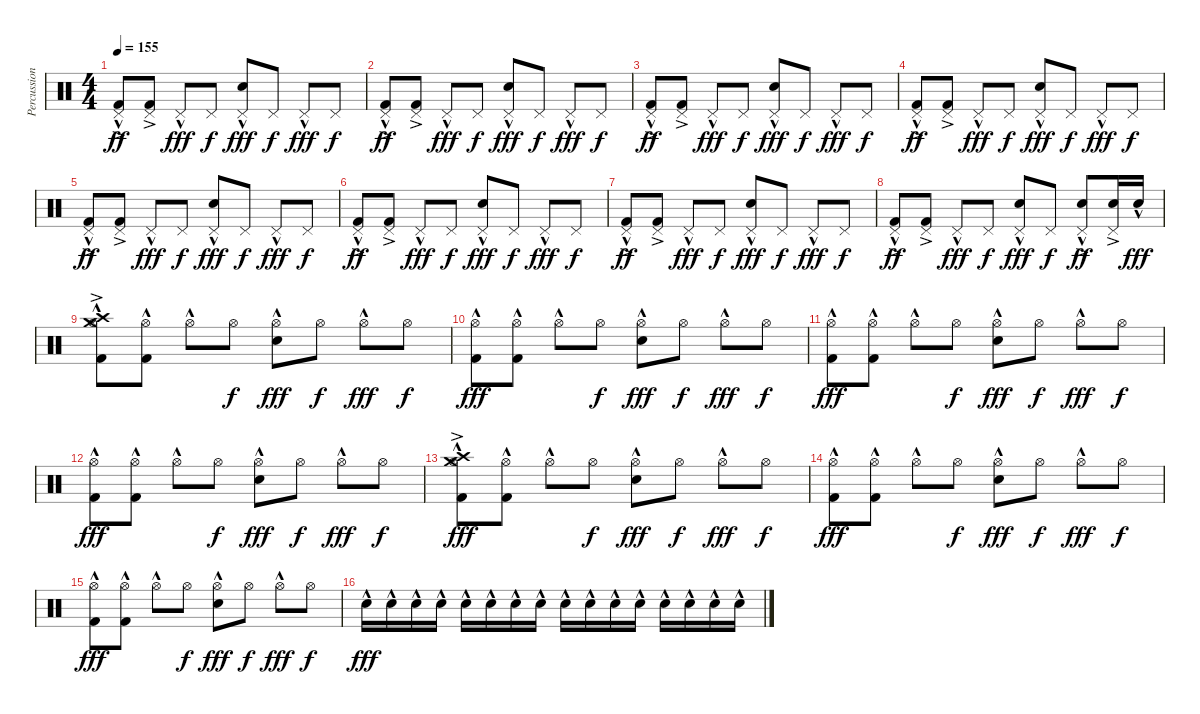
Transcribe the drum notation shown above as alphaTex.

\track ("Percussion" "Percussion") {instrument percussion}
\staff {score}
\articulation defaults
\ts (4 4)
\tempo 155
\clef neutral
\ks c
("Pedal Hi-Hat (hit)"{hac} "Kick (hit) 2"{ac}).8{dy ff} ("Pedal Hi-Hat (hit)" "Kick (hit) 2"{ac}).8 "Pedal Hi-Hat (hit)"{hac}.8{dy fff} "Pedal Hi-Hat (hit)".8{dy f} ("Pedal Hi-Hat (hit)"{hac} "Electric Snare (hit)"{hac}).8{dy fff} "Pedal Hi-Hat (hit)".8{dy f} "Pedal Hi-Hat (hit)"{hac}.8{dy fff} "Pedal Hi-Hat (hit)".8{dy f} |
("Pedal Hi-Hat (hit)"{hac} "Kick (hit) 2"{ac}).8{dy ff} ("Pedal Hi-Hat (hit)" "Kick (hit) 2"{ac}).8 "Pedal Hi-Hat (hit)"{hac}.8{dy fff} "Pedal Hi-Hat (hit)".8{dy f} ("Pedal Hi-Hat (hit)"{hac} "Electric Snare (hit)"{hac}).8{dy fff} "Pedal Hi-Hat (hit)".8{dy f} "Pedal Hi-Hat (hit)"{hac}.8{dy fff} "Pedal Hi-Hat (hit)".8{dy f} |
("Pedal Hi-Hat (hit)"{hac} "Kick (hit) 2"{ac}).8{dy ff} ("Pedal Hi-Hat (hit)" "Kick (hit) 2"{ac}).8 "Pedal Hi-Hat (hit)"{hac}.8{dy fff} "Pedal Hi-Hat (hit)".8{dy f} ("Pedal Hi-Hat (hit)"{hac} "Electric Snare (hit)"{hac}).8{dy fff} "Pedal Hi-Hat (hit)".8{dy f} "Pedal Hi-Hat (hit)"{hac}.8{dy fff} "Pedal Hi-Hat (hit)".8{dy f} |
("Pedal Hi-Hat (hit)"{hac} "Kick (hit) 2"{ac}).8{dy ff} ("Pedal Hi-Hat (hit)" "Kick (hit) 2"{ac}).8 "Pedal Hi-Hat (hit)"{hac}.8{dy fff} "Pedal Hi-Hat (hit)".8{dy f} ("Pedal Hi-Hat (hit)"{hac} "Electric Snare (hit)"{hac}).8{dy fff} "Pedal Hi-Hat (hit)".8{dy f} "Pedal Hi-Hat (hit)"{hac}.8{dy fff} "Pedal Hi-Hat (hit)".8{dy f} |
("Pedal Hi-Hat (hit)"{hac} "Kick (hit) 2"{ac}).8{dy ff} ("Pedal Hi-Hat (hit)" "Kick (hit) 2"{ac}).8 "Pedal Hi-Hat (hit)"{hac}.8{dy fff} "Pedal Hi-Hat (hit)".8{dy f} ("Pedal Hi-Hat (hit)"{hac} "Electric Snare (hit)"{hac}).8{dy fff} "Pedal Hi-Hat (hit)".8{dy f} "Pedal Hi-Hat (hit)"{hac}.8{dy fff} "Pedal Hi-Hat (hit)".8{dy f} |
("Pedal Hi-Hat (hit)"{hac} "Kick (hit) 2"{ac}).8{dy ff} ("Pedal Hi-Hat (hit)" "Kick (hit) 2"{ac}).8 "Pedal Hi-Hat (hit)"{hac}.8{dy fff} "Pedal Hi-Hat (hit)".8{dy f} ("Pedal Hi-Hat (hit)"{hac} "Electric Snare (hit)"{hac}).8{dy fff} "Pedal Hi-Hat (hit)".8{dy f} "Pedal Hi-Hat (hit)"{hac}.8{dy fff} "Pedal Hi-Hat (hit)".8{dy f} |
("Pedal Hi-Hat (hit)"{hac} "Kick (hit) 2"{ac}).8{dy ff} ("Pedal Hi-Hat (hit)" "Kick (hit) 2"{ac}).8 "Pedal Hi-Hat (hit)"{hac}.8{dy fff} "Pedal Hi-Hat (hit)".8{dy f} ("Pedal Hi-Hat (hit)"{hac} "Electric Snare (hit)"{hac}).8{dy fff} "Pedal Hi-Hat (hit)".8{dy f} "Pedal Hi-Hat (hit)"{hac}.8{dy fff} "Pedal Hi-Hat (hit)".8{dy f} |
("Pedal Hi-Hat (hit)"{hac} "Kick (hit) 2"{ac}).8{dy ff} ("Pedal Hi-Hat (hit)" "Kick (hit) 2"{ac}).8 "Pedal Hi-Hat (hit)"{hac}.8{dy fff} "Pedal Hi-Hat (hit)".8{dy f} ("Pedal Hi-Hat (hit)"{hac} "Electric Snare (hit)"{hac}).8{dy fff} "Pedal Hi-Hat (hit)".8{dy f} ("Pedal Hi-Hat (hit)"{hac} "Electric Snare (hit)"{ac}).8{dy ff} ("Pedal Hi-Hat (hit)" "Electric Snare (hit)"{ac}).16 "Electric Snare (hit)"{hac}.16{dy fff} |
("Hi-Hat (open)"{hac} "Crash medium (hit)"{hac} "Crash high (hit)"{ac} "Kick (hit) 2"{hac}).8 ("Hi-Hat (open)" "Kick (hit) 2"{hac}).8 "Hi-Hat (open)"{hac}.8 "Hi-Hat (open)".8{dy f} ("Hi-Hat (open)"{hac} "Electric Snare (hit)"{hac}).8{dy fff} "Hi-Hat (open)".8{dy f} "Hi-Hat (open)"{hac}.8{dy fff} "Hi-Hat (open)".8{dy f} |
("Hi-Hat (open)"{hac} "Kick (hit) 2"{hac}).8{dy fff} ("Hi-Hat (open)" "Kick (hit) 2"{hac}).8 "Hi-Hat (open)"{hac}.8 "Hi-Hat (open)".8{dy f} ("Hi-Hat (open)"{hac} "Electric Snare (hit)"{hac}).8{dy fff} "Hi-Hat (open)".8{dy f} "Hi-Hat (open)"{hac}.8{dy fff} "Hi-Hat (open)".8{dy f} |
("Hi-Hat (open)"{hac} "Kick (hit) 2"{hac}).8{dy fff} ("Hi-Hat (open)" "Kick (hit) 2"{hac}).8 "Hi-Hat (open)"{hac}.8 "Hi-Hat (open)".8{dy f} ("Hi-Hat (open)"{hac} "Electric Snare (hit)"{hac}).8{dy fff} "Hi-Hat (open)".8{dy f} "Hi-Hat (open)"{hac}.8{dy fff} "Hi-Hat (open)".8{dy f} |
("Hi-Hat (open)"{hac} "Kick (hit) 2"{hac}).8{dy fff} ("Hi-Hat (open)" "Kick (hit) 2"{hac}).8 "Hi-Hat (open)"{hac}.8 "Hi-Hat (open)".8{dy f} ("Hi-Hat (open)"{hac} "Electric Snare (hit)"{hac}).8{dy fff} "Hi-Hat (open)".8{dy f} "Hi-Hat (open)"{hac}.8{dy fff} "Hi-Hat (open)".8{dy f} |
("Hi-Hat (open)"{hac} "Crash medium (hit)"{hac} "Crash high (hit)"{ac} "Kick (hit) 2"{hac}).8{dy fff} ("Hi-Hat (open)" "Kick (hit) 2"{hac}).8 "Hi-Hat (open)"{hac}.8 "Hi-Hat (open)".8{dy f} ("Hi-Hat (open)"{hac} "Electric Snare (hit)"{hac}).8{dy fff} "Hi-Hat (open)".8{dy f} "Hi-Hat (open)"{hac}.8{dy fff} "Hi-Hat (open)".8{dy f} |
("Hi-Hat (open)"{hac} "Kick (hit) 2"{hac}).8{dy fff} ("Hi-Hat (open)" "Kick (hit) 2"{hac}).8 "Hi-Hat (open)"{hac}.8 "Hi-Hat (open)".8{dy f} ("Hi-Hat (open)"{hac} "Electric Snare (hit)"{hac}).8{dy fff} "Hi-Hat (open)".8{dy f} "Hi-Hat (open)"{hac}.8{dy fff} "Hi-Hat (open)".8{dy f} |
("Hi-Hat (open)"{hac} "Kick (hit) 2"{hac}).8{dy fff} ("Hi-Hat (open)" "Kick (hit) 2"{hac}).8 "Hi-Hat (open)"{hac}.8 "Hi-Hat (open)".8{dy f} ("Hi-Hat (open)"{hac} "Electric Snare (hit)"{hac}).8{dy fff} "Hi-Hat (open)".8{dy f} "Hi-Hat (open)"{hac}.8{dy fff} "Hi-Hat (open)".8{dy f} |
"Electric Snare (hit)"{hac}.16{dy fff} "Electric Snare (hit)"{hac}.16 "Electric Snare (hit)"{hac}.16 "Electric Snare (hit)"{hac}.16 "Electric Snare (hit)"{hac}.16 "Electric Snare (hit)"{hac}.16 "Electric Snare (hit)"{hac}.16 "Electric Snare (hit)"{hac}.16 "Electric Snare (hit)"{hac}.16 "Electric Snare (hit)"{hac}.16 "Electric Snare (hit)"{hac}.16 "Electric Snare (hit)"{hac}.16 "Electric Snare (hit)"{hac}.16 "Electric Snare (hit)"{hac}.16 "Electric Snare (hit)"{hac}.16 "Electric Snare (hit)"{hac}.16
